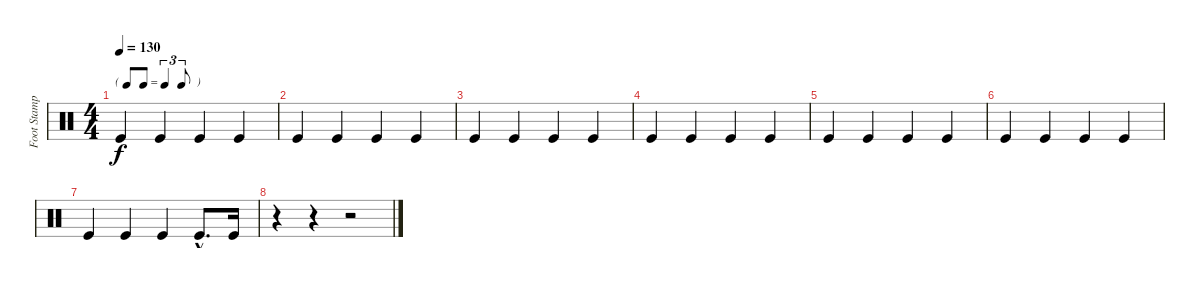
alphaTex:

\track ("Foot Stamp" "Foot Stamp") {instrument percussion}
\staff {score}
\articulation defaults
\ts (4 4)
\tf triplet8th
\tempo 130
\clef neutral
\ks c "Kick (hit)".4{dy f} "Kick (hit)".4 "Kick (hit)".4 "Kick (hit)".4
|
"Kick (hit)".4 "Kick (hit)".4 "Kick (hit)".4 "Kick (hit)".4 |
"Kick (hit)".4 "Kick (hit)".4 "Kick (hit)".4 "Kick (hit)".4 |
"Kick (hit)".4 "Kick (hit)".4 "Kick (hit)".4 "Kick (hit)".4 |
"Kick (hit)".4 "Kick (hit)".4 "Kick (hit)".4 "Kick (hit)".4 |
"Kick (hit)".4 "Kick (hit)".4 "Kick (hit)".4 "Kick (hit)".4 |
"Kick (hit)".4 "Kick (hit)".4 "Kick (hit)".4 "Kick (hit)"{hac}.8{d} "Kick (hit)".16 |
r.4 r.4 r.2
